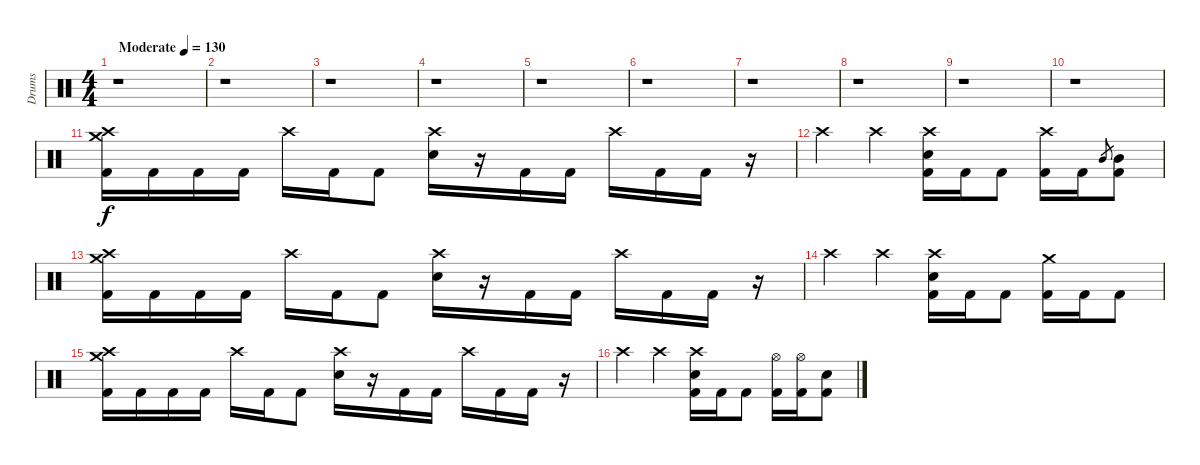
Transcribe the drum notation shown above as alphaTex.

\track ("Drums" "Drums") {solo instrument percussion}
\staff {score}
\articulation defaults
\ts (4 4)
\tempo (130 "Moderate")
\clef neutral
\ks c
r.1{dy f} |
r.1 |
r.1 |
r.1 |
r.1 |
r.1 |
r.1 |
r.1 |
r.1 |
r.1 |
("Crash high (hit)" "Crash medium (hit)" "Kick (hit) 2").16 "Kick (hit) 2".16 "Kick (hit) 2".16 "Kick (hit) 2".16 "Crash high (hit)".16 "Kick (hit) 2".16 "Kick (hit) 2".8 ("Crash high (hit)" "Electric Snare (hit)").16 r.16 "Kick (hit) 2".16 "Kick (hit) 2".16 "Crash high (hit)".16 "Kick (hit) 2".16 "Kick (hit) 2".16 r.16 |
"Crash high (hit)".4 "Crash high (hit)".4 ("Crash high (hit)" "Electric Snare (hit)" "Kick (hit) 2").16 "Kick (hit) 2".16 "Kick (hit) 2".8 ("Crash high (hit)" "Kick (hit) 2").16 "Kick (hit) 2".16 "Mid Tom (hit)".8{gr} ("Mid Tom (hit)" "Kick (hit) 2").8 |
("Crash high (hit)" "Crash medium (hit)" "Kick (hit) 2").16 "Kick (hit) 2".16 "Kick (hit) 2".16 "Kick (hit) 2".16 "Crash high (hit)".16 "Kick (hit) 2".16 "Kick (hit) 2".8 ("Crash high (hit)" "Electric Snare (hit)").16 r.16 "Kick (hit) 2".16 "Kick (hit) 2".16 "Crash high (hit)".16 "Kick (hit) 2".16 "Kick (hit) 2".16 r.16 |
"Crash high (hit)".4 "Crash high (hit)".4 ("Crash high (hit)" "Electric Snare (hit)" "Kick (hit) 2").16 "Kick (hit) 2".16 "Kick (hit) 2".8 ("Crash medium (hit)" "Kick (hit) 2").16 "Kick (hit) 2".16 "Kick (hit) 2".8 |
("Crash high (hit)" "Crash medium (hit)" "Kick (hit) 2").16 "Kick (hit) 2".16 "Kick (hit) 2".16 "Kick (hit) 2".16 "Crash high (hit)".16 "Kick (hit) 2".16 "Kick (hit) 2".8 ("Crash high (hit)" "Electric Snare (hit)").16 r.16 "Kick (hit) 2".16 "Kick (hit) 2".16 "Crash high (hit)".16 "Kick (hit) 2".16 "Kick (hit) 2".16 r.16 |
"Crash high (hit)".4 "Crash high (hit)".4 ("Crash high (hit)" "Electric Snare (hit)" "Kick (hit) 2").16 "Kick (hit) 2".16 "Kick (hit) 2".8 ("Hi-Hat (open)" "Kick (hit) 2").16 ("Hi-Hat (open)" "Kick (hit) 2").16 ("Electric Snare (hit)" "Kick (hit) 2").8
